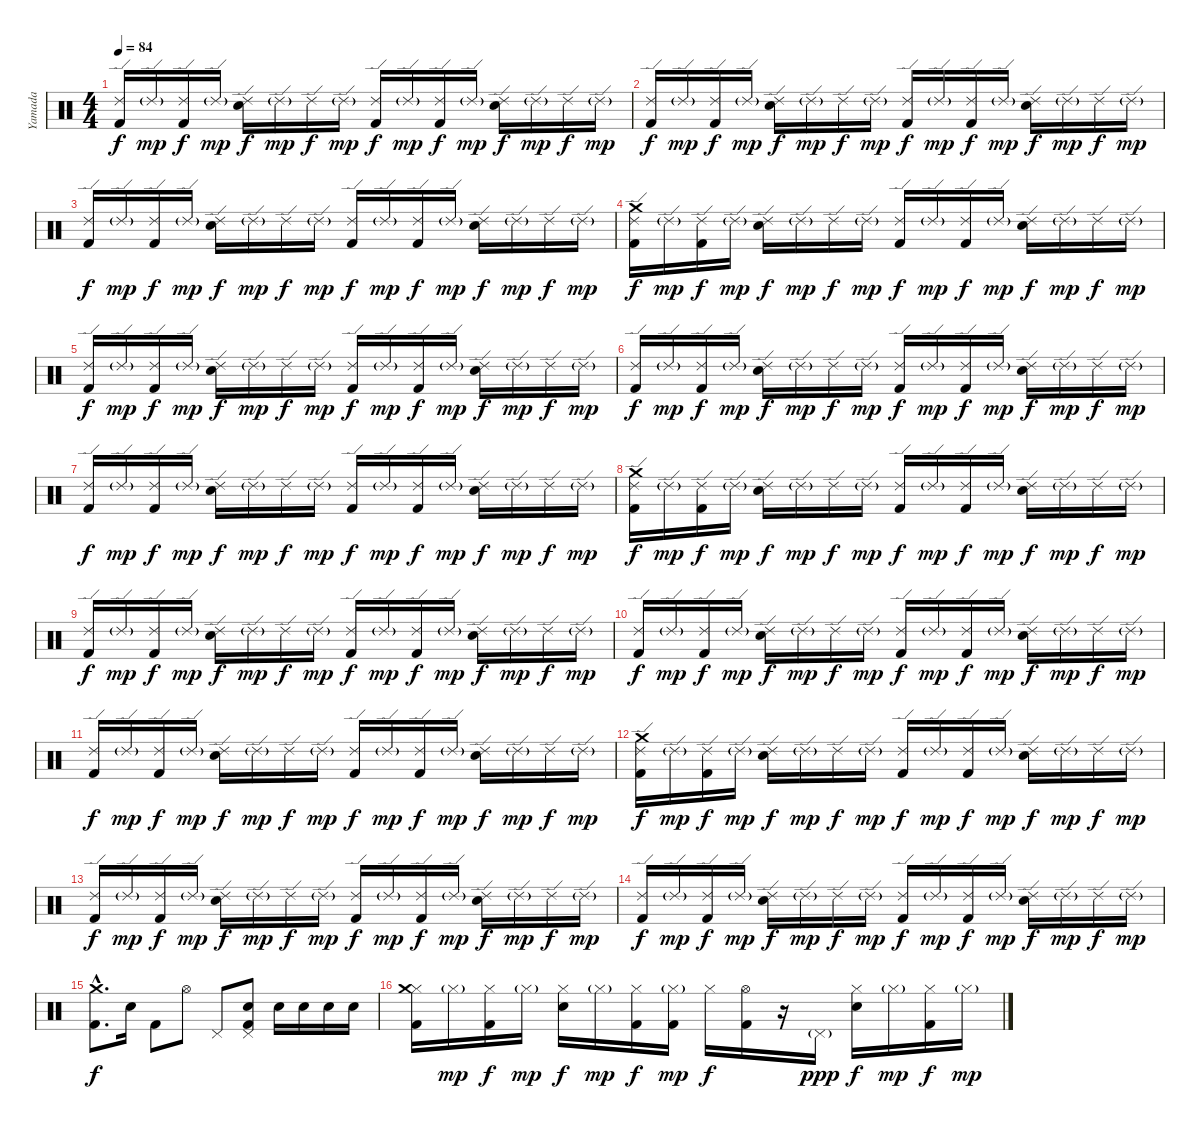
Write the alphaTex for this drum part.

\track ("Yamada" "Yamada") {instrument percussion}
\staff {score}
\articulation defaults
\ts (4 4)
\tempo 84
\clef neutral
\ks c
("Ride (edge) 2" "Kick (hit) 2").16{dy f} "Ride (edge) 2"{g}.16{dy mp} ("Ride (edge) 2" "Kick (hit) 2").16{dy f} "Ride (edge) 2"{g}.16{dy mp} ("Ride (edge) 2" "Electric Snare (hit)").16{dy f} "Ride (edge) 2"{g}.16{dy mp} "Ride (edge) 2".16{dy f} "Ride (edge) 2"{g}.16{dy mp} ("Ride (edge) 2" "Kick (hit) 2").16{dy f} "Ride (edge) 2"{g}.16{dy mp} ("Ride (edge) 2" "Kick (hit) 2").16{dy f} "Ride (edge) 2"{g}.16{dy mp} ("Ride (edge) 2" "Electric Snare (hit)").16{dy f} "Ride (edge) 2"{g}.16{dy mp} "Ride (edge) 2".16{dy f} "Ride (edge) 2"{g}.16{dy mp} |
("Ride (edge) 2" "Kick (hit) 2").16{dy f} "Ride (edge) 2"{g}.16{dy mp} ("Ride (edge) 2" "Kick (hit) 2").16{dy f} "Ride (edge) 2"{g}.16{dy mp} ("Ride (edge) 2" "Electric Snare (hit)").16{dy f} "Ride (edge) 2"{g}.16{dy mp} "Ride (edge) 2".16{dy f} "Ride (edge) 2"{g}.16{dy mp} ("Ride (edge) 2" "Kick (hit) 2").16{dy f} "Ride (edge) 2"{g}.16{dy mp} ("Ride (edge) 2" "Kick (hit) 2").16{dy f} "Ride (edge) 2"{g}.16{dy mp} ("Ride (edge) 2" "Electric Snare (hit)").16{dy f} "Ride (edge) 2"{g}.16{dy mp} "Ride (edge) 2".16{dy f} "Ride (edge) 2"{g}.16{dy mp} |
("Ride (edge) 2" "Kick (hit) 2").16{dy f} "Ride (edge) 2"{g}.16{dy mp} ("Ride (edge) 2" "Kick (hit) 2").16{dy f} "Ride (edge) 2"{g}.16{dy mp} ("Ride (edge) 2" "Electric Snare (hit)").16{dy f} "Ride (edge) 2"{g}.16{dy mp} "Ride (edge) 2".16{dy f} "Ride (edge) 2"{g}.16{dy mp} ("Ride (edge) 2" "Kick (hit) 2").16{dy f} "Ride (edge) 2"{g}.16{dy mp} ("Ride (edge) 2" "Kick (hit) 2").16{dy f} "Ride (edge) 2"{g}.16{dy mp} ("Ride (edge) 2" "Electric Snare (hit)").16{dy f} "Ride (edge) 2"{g}.16{dy mp} "Ride (edge) 2".16{dy f} "Ride (edge) 2"{g}.16{dy mp} |
("Ride (edge) 2" "Crash medium (hit)" "Kick (hit) 2").16{dy f} "Ride (edge) 2"{g}.16{dy mp} ("Ride (edge) 2" "Kick (hit) 2").16{dy f} "Ride (edge) 2"{g}.16{dy mp} ("Ride (edge) 2" "Electric Snare (hit)").16{dy f} "Ride (edge) 2"{g}.16{dy mp} "Ride (edge) 2".16{dy f} "Ride (edge) 2"{g}.16{dy mp} ("Ride (edge) 2" "Kick (hit) 2").16{dy f} "Ride (edge) 2"{g}.16{dy mp} ("Ride (edge) 2" "Kick (hit) 2").16{dy f} "Ride (edge) 2"{g}.16{dy mp} ("Ride (edge) 2" "Electric Snare (hit)").16{dy f} "Ride (edge) 2"{g}.16{dy mp} "Ride (edge) 2".16{dy f} "Ride (edge) 2"{g}.16{dy mp} |
("Ride (edge) 2" "Kick (hit) 2").16{dy f} "Ride (edge) 2"{g}.16{dy mp} ("Ride (edge) 2" "Kick (hit) 2").16{dy f} "Ride (edge) 2"{g}.16{dy mp} ("Ride (edge) 2" "Electric Snare (hit)").16{dy f} "Ride (edge) 2"{g}.16{dy mp} "Ride (edge) 2".16{dy f} "Ride (edge) 2"{g}.16{dy mp} ("Ride (edge) 2" "Kick (hit) 2").16{dy f} "Ride (edge) 2"{g}.16{dy mp} ("Ride (edge) 2" "Kick (hit) 2").16{dy f} "Ride (edge) 2"{g}.16{dy mp} ("Ride (edge) 2" "Electric Snare (hit)").16{dy f} "Ride (edge) 2"{g}.16{dy mp} "Ride (edge) 2".16{dy f} "Ride (edge) 2"{g}.16{dy mp} |
("Ride (edge) 2" "Kick (hit) 2").16{dy f} "Ride (edge) 2"{g}.16{dy mp} ("Ride (edge) 2" "Kick (hit) 2").16{dy f} "Ride (edge) 2"{g}.16{dy mp} ("Ride (edge) 2" "Electric Snare (hit)").16{dy f} "Ride (edge) 2"{g}.16{dy mp} "Ride (edge) 2".16{dy f} "Ride (edge) 2"{g}.16{dy mp} ("Ride (edge) 2" "Kick (hit) 2").16{dy f} "Ride (edge) 2"{g}.16{dy mp} ("Ride (edge) 2" "Kick (hit) 2").16{dy f} "Ride (edge) 2"{g}.16{dy mp} ("Ride (edge) 2" "Electric Snare (hit)").16{dy f} "Ride (edge) 2"{g}.16{dy mp} "Ride (edge) 2".16{dy f} "Ride (edge) 2"{g}.16{dy mp} |
("Ride (edge) 2" "Kick (hit) 2").16{dy f} "Ride (edge) 2"{g}.16{dy mp} ("Ride (edge) 2" "Kick (hit) 2").16{dy f} "Ride (edge) 2"{g}.16{dy mp} ("Ride (edge) 2" "Electric Snare (hit)").16{dy f} "Ride (edge) 2"{g}.16{dy mp} "Ride (edge) 2".16{dy f} "Ride (edge) 2"{g}.16{dy mp} ("Ride (edge) 2" "Kick (hit) 2").16{dy f} "Ride (edge) 2"{g}.16{dy mp} ("Ride (edge) 2" "Kick (hit) 2").16{dy f} "Ride (edge) 2"{g}.16{dy mp} ("Ride (edge) 2" "Electric Snare (hit)").16{dy f} "Ride (edge) 2"{g}.16{dy mp} "Ride (edge) 2".16{dy f} "Ride (edge) 2"{g}.16{dy mp} |
("Ride (edge) 2" "Crash medium (hit)" "Kick (hit) 2").16{dy f} "Ride (edge) 2"{g}.16{dy mp} ("Ride (edge) 2" "Kick (hit) 2").16{dy f} "Ride (edge) 2"{g}.16{dy mp} ("Ride (edge) 2" "Electric Snare (hit)").16{dy f} "Ride (edge) 2"{g}.16{dy mp} "Ride (edge) 2".16{dy f} "Ride (edge) 2"{g}.16{dy mp} ("Ride (edge) 2" "Kick (hit) 2").16{dy f} "Ride (edge) 2"{g}.16{dy mp} ("Ride (edge) 2" "Kick (hit) 2").16{dy f} "Ride (edge) 2"{g}.16{dy mp} ("Ride (edge) 2" "Electric Snare (hit)").16{dy f} "Ride (edge) 2"{g}.16{dy mp} "Ride (edge) 2".16{dy f} "Ride (edge) 2"{g}.16{dy mp} |
("Ride (edge) 2" "Kick (hit) 2").16{dy f} "Ride (edge) 2"{g}.16{dy mp} ("Ride (edge) 2" "Kick (hit) 2").16{dy f} "Ride (edge) 2"{g}.16{dy mp} ("Ride (edge) 2" "Electric Snare (hit)").16{dy f} "Ride (edge) 2"{g}.16{dy mp} "Ride (edge) 2".16{dy f} "Ride (edge) 2"{g}.16{dy mp} ("Ride (edge) 2" "Kick (hit) 2").16{dy f} "Ride (edge) 2"{g}.16{dy mp} ("Ride (edge) 2" "Kick (hit) 2").16{dy f} "Ride (edge) 2"{g}.16{dy mp} ("Ride (edge) 2" "Electric Snare (hit)").16{dy f} "Ride (edge) 2"{g}.16{dy mp} "Ride (edge) 2".16{dy f} "Ride (edge) 2"{g}.16{dy mp} |
("Ride (edge) 2" "Kick (hit) 2").16{dy f} "Ride (edge) 2"{g}.16{dy mp} ("Ride (edge) 2" "Kick (hit) 2").16{dy f} "Ride (edge) 2"{g}.16{dy mp} ("Ride (edge) 2" "Electric Snare (hit)").16{dy f} "Ride (edge) 2"{g}.16{dy mp} "Ride (edge) 2".16{dy f} "Ride (edge) 2"{g}.16{dy mp} ("Ride (edge) 2" "Kick (hit) 2").16{dy f} "Ride (edge) 2"{g}.16{dy mp} ("Ride (edge) 2" "Kick (hit) 2").16{dy f} "Ride (edge) 2"{g}.16{dy mp} ("Ride (edge) 2" "Electric Snare (hit)").16{dy f} "Ride (edge) 2"{g}.16{dy mp} "Ride (edge) 2".16{dy f} "Ride (edge) 2"{g}.16{dy mp} |
("Ride (edge) 2" "Kick (hit) 2").16{dy f} "Ride (edge) 2"{g}.16{dy mp} ("Ride (edge) 2" "Kick (hit) 2").16{dy f} "Ride (edge) 2"{g}.16{dy mp} ("Ride (edge) 2" "Electric Snare (hit)").16{dy f} "Ride (edge) 2"{g}.16{dy mp} "Ride (edge) 2".16{dy f} "Ride (edge) 2"{g}.16{dy mp} ("Ride (edge) 2" "Kick (hit) 2").16{dy f} "Ride (edge) 2"{g}.16{dy mp} ("Ride (edge) 2" "Kick (hit) 2").16{dy f} "Ride (edge) 2"{g}.16{dy mp} ("Ride (edge) 2" "Electric Snare (hit)").16{dy f} "Ride (edge) 2"{g}.16{dy mp} "Ride (edge) 2".16{dy f} "Ride (edge) 2"{g}.16{dy mp} |
("Ride (edge) 2" "Crash medium (hit)" "Kick (hit) 2").16{dy f} "Ride (edge) 2"{g}.16{dy mp} ("Ride (edge) 2" "Kick (hit) 2").16{dy f} "Ride (edge) 2"{g}.16{dy mp} ("Ride (edge) 2" "Electric Snare (hit)").16{dy f} "Ride (edge) 2"{g}.16{dy mp} "Ride (edge) 2".16{dy f} "Ride (edge) 2"{g}.16{dy mp} ("Ride (edge) 2" "Kick (hit) 2").16{dy f} "Ride (edge) 2"{g}.16{dy mp} ("Ride (edge) 2" "Kick (hit) 2").16{dy f} "Ride (edge) 2"{g}.16{dy mp} ("Ride (edge) 2" "Electric Snare (hit)").16{dy f} "Ride (edge) 2"{g}.16{dy mp} "Ride (edge) 2".16{dy f} "Ride (edge) 2"{g}.16{dy mp} |
("Ride (edge) 2" "Kick (hit) 2").16{dy f} "Ride (edge) 2"{g}.16{dy mp} ("Ride (edge) 2" "Kick (hit) 2").16{dy f} "Ride (edge) 2"{g}.16{dy mp} ("Ride (edge) 2" "Electric Snare (hit)").16{dy f} "Ride (edge) 2"{g}.16{dy mp} "Ride (edge) 2".16{dy f} "Ride (edge) 2"{g}.16{dy mp} ("Ride (edge) 2" "Kick (hit) 2").16{dy f} "Ride (edge) 2"{g}.16{dy mp} ("Ride (edge) 2" "Kick (hit) 2").16{dy f} "Ride (edge) 2"{g}.16{dy mp} ("Ride (edge) 2" "Electric Snare (hit)").16{dy f} "Ride (edge) 2"{g}.16{dy mp} "Ride (edge) 2".16{dy f} "Ride (edge) 2"{g}.16{dy mp} |
("Ride (edge) 2" "Kick (hit) 2").16{dy f} "Ride (edge) 2"{g}.16{dy mp} ("Ride (edge) 2" "Kick (hit) 2").16{dy f} "Ride (edge) 2"{g}.16{dy mp} ("Ride (edge) 2" "Electric Snare (hit)").16{dy f} "Ride (edge) 2"{g}.16{dy mp} "Ride (edge) 2".16{dy f} "Ride (edge) 2"{g}.16{dy mp} ("Ride (edge) 2" "Kick (hit) 2").16{dy f} "Ride (edge) 2"{g}.16{dy mp} ("Ride (edge) 2" "Kick (hit) 2").16{dy f} "Ride (edge) 2"{g}.16{dy mp} ("Ride (edge) 2" "Electric Snare (hit)").16{dy f} "Ride (edge) 2"{g}.16{dy mp} "Ride (edge) 2".16{dy f} "Ride (edge) 2"{g}.16{dy mp} |
("Crash medium (hit)"{hac} "Kick (hit) 2"{hac}).8{d dy f} "Electric Snare (hit)".16 "Kick (hit) 2".8 "Hi-Hat (open)".8 "Pedal Hi-Hat (hit)".8 ("Pedal Hi-Hat (hit)" "Electric Snare (hit)" "Kick (hit) 2").8 "Electric Snare (hit)".16 "Electric Snare (hit)".16 "Electric Snare (hit)".16 "Electric Snare (hit)".16 |
("Hi-Hat (closed)" "Crash medium (hit)" "Kick (hit) 2").16 "Hi-Hat (closed)"{g}.16{dy mp} ("Hi-Hat (closed)" "Kick (hit) 2").16{dy f} "Hi-Hat (closed)"{g}.16{dy mp} ("Hi-Hat (closed)" "Electric Snare (hit)").16{dy f} "Hi-Hat (closed)"{g}.16{dy mp} ("Hi-Hat (closed)" "Kick (hit) 2").16{dy f} ("Hi-Hat (closed)"{g} "Kick (hit) 2").16{dy mp} "Hi-Hat (closed)".16{dy f} ("Hi-Hat (open)" "Kick (hit) 2").16 r.16 "Pedal Hi-Hat (hit)"{g}.16{dy ppp} ("Hi-Hat (closed)" "Electric Snare (hit)").16{dy f} "Hi-Hat (closed)"{g}.16{dy mp} ("Hi-Hat (closed)" "Kick (hit) 2").16{dy f} "Hi-Hat (closed)"{g}.16{dy mp}
